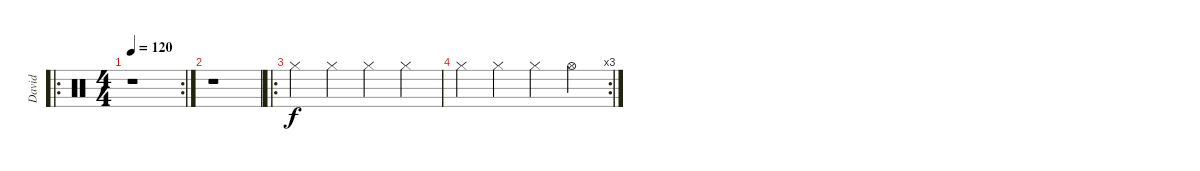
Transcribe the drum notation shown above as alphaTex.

\track ("David" "David") {instrument percussion}
\staff {score}
\articulation defaults
\ro
\rc 2
\ts (4 4)
\tempo 120
\clef neutral
\ks c
r.1{dy f} |
r.1 |
\ro "Hi-Hat (closed)".4 "Hi-Hat (closed)".4 "Hi-Hat (closed)".4 "Hi-Hat (closed)".4
|
\rc 3 "Hi-Hat (closed)".4 "Hi-Hat (closed)".4 "Hi-Hat (closed)".4 "Hi-Hat (open)".4
